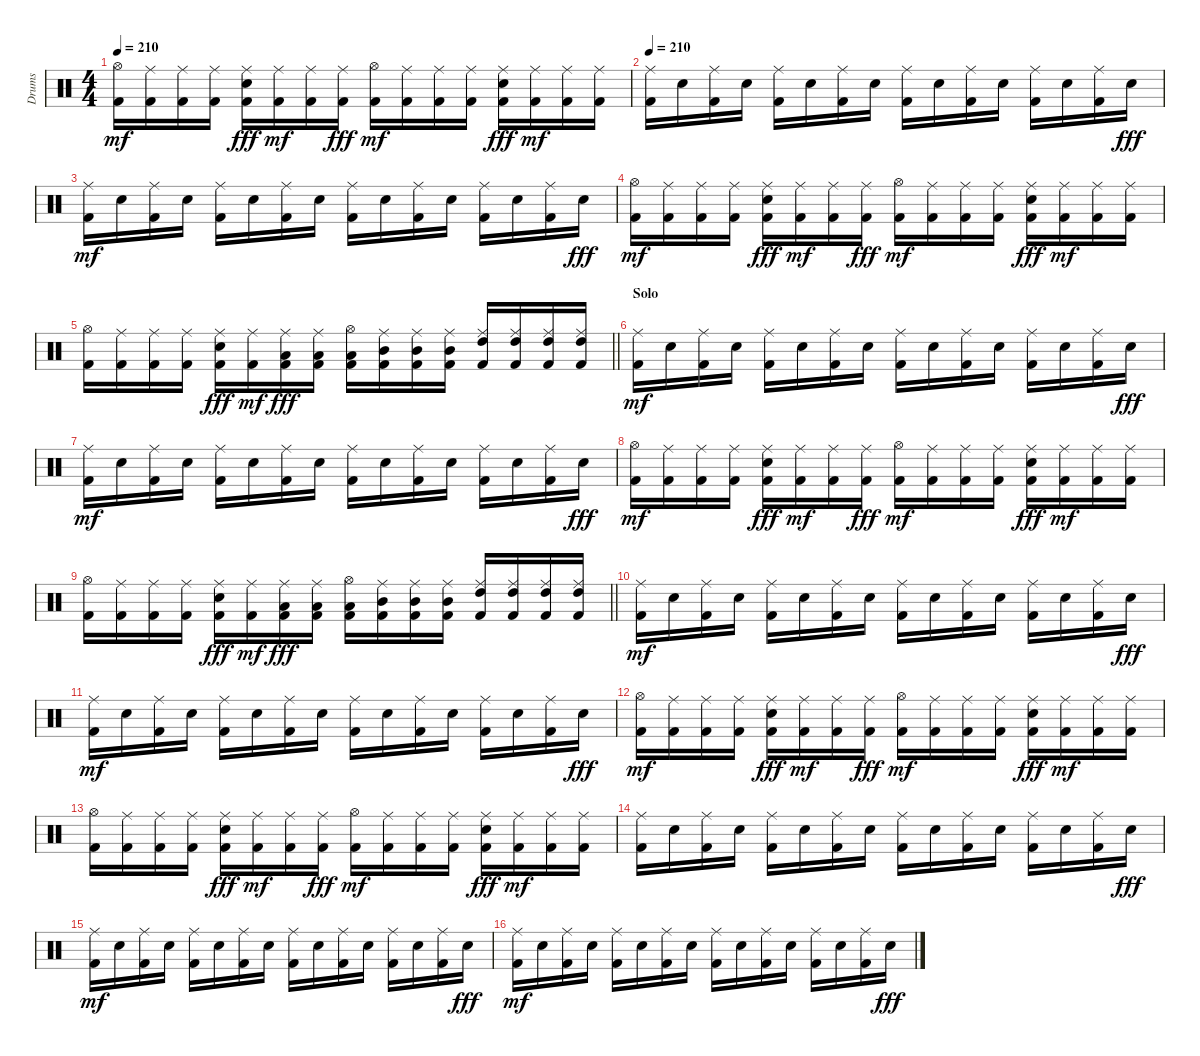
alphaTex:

\track ("Drums" "Drums") {instrument percussion}
\staff {score}
\articulation defaults
\ts (4 4)
\tempo 210
\clef neutral
\ks c
("Hi-Hat (open)" "Kick (hit) 2").16{dy mf} ("Ride (middle)" "Kick (hit) 2").16 ("Ride (middle)" "Kick (hit) 2").16 ("Ride (middle)" "Kick (hit) 2").16 ("Ride (middle)" "Snare (hit) 2" "Kick (hit) 2").16{dy fff} ("Ride (middle)" "Kick (hit) 2").16{dy mf} ("Ride (middle)" "Kick (hit) 2").16 ("Ride (middle)" "Kick (hit) 2").16{dy fff} ("Hi-Hat (open)" "Kick (hit) 2").16{dy mf} ("Ride (middle)" "Kick (hit) 2").16 ("Ride (middle)" "Kick (hit) 2").16 ("Ride (middle)" "Kick (hit) 2").16 ("Ride (middle)" "Snare (hit) 2" "Kick (hit) 2").16{dy fff} ("Ride (middle)" "Kick (hit) 2").16{dy mf} ("Ride (middle)" "Kick (hit) 2").16 ("Ride (middle)" "Kick (hit) 2").16 |
\tempo 210
("Ride (middle)" "Kick (hit) 2").16 "Snare (hit) 2".16 ("Ride (middle)" "Kick (hit) 2").16 "Snare (hit) 2".16 ("Ride (middle)" "Kick (hit) 2").16 "Snare (hit) 2".16 ("Ride (middle)" "Kick (hit) 2").16 "Snare (hit) 2".16 ("Ride (middle)" "Kick (hit) 2").16 "Snare (hit) 2".16 ("Ride (middle)" "Kick (hit) 2").16 "Snare (hit) 2".16 ("Ride (middle)" "Kick (hit) 2").16 "Snare (hit) 2".16 ("Ride (middle)" "Kick (hit) 2").16 "Snare (hit) 2".16{dy fff} |
("Ride (middle)" "Kick (hit) 2").16{dy mf} "Snare (hit) 2".16 ("Ride (middle)" "Kick (hit) 2").16 "Snare (hit) 2".16 ("Ride (middle)" "Kick (hit) 2").16 "Snare (hit) 2".16 ("Ride (middle)" "Kick (hit) 2").16 "Snare (hit) 2".16 ("Ride (middle)" "Kick (hit) 2").16 "Snare (hit) 2".16 ("Ride (middle)" "Kick (hit) 2").16 "Snare (hit) 2".16 ("Ride (middle)" "Kick (hit) 2").16 "Snare (hit) 2".16 ("Ride (middle)" "Kick (hit) 2").16 "Snare (hit) 2".16{dy fff} |
("Hi-Hat (open)" "Kick (hit) 2").16{dy mf} ("Ride (middle)" "Kick (hit) 2").16 ("Ride (middle)" "Kick (hit) 2").16 ("Ride (middle)" "Kick (hit) 2").16 ("Ride (middle)" "Snare (hit) 2" "Kick (hit) 2").16{dy fff} ("Ride (middle)" "Kick (hit) 2").16{dy mf} ("Ride (middle)" "Kick (hit) 2").16 ("Ride (middle)" "Kick (hit) 2").16{dy fff} ("Hi-Hat (open)" "Kick (hit) 2").16{dy mf} ("Ride (middle)" "Kick (hit) 2").16 ("Ride (middle)" "Kick (hit) 2").16 ("Ride (middle)" "Kick (hit) 2").16 ("Ride (middle)" "Snare (hit) 2" "Kick (hit) 2").16{dy fff} ("Ride (middle)" "Kick (hit) 2").16{dy mf} ("Ride (middle)" "Kick (hit) 2").16 ("Ride (middle)" "Kick (hit) 2").16 |
\barLineRight lightlight
("Hi-Hat (open)" "Kick (hit) 2").16 ("Ride (middle)" "Kick (hit) 2").16 ("Ride (middle)" "Kick (hit) 2").16 ("Ride (middle)" "Kick (hit) 2").16 ("Ride (middle)" "Snare (hit) 2" "Kick (hit) 2").16{dy fff} ("Ride (middle)" "Kick (hit) 2").16{dy mf} ("Ride (middle)" "Low Tom (hit)" "Kick (hit) 2").16{dy fff} ("Ride (middle)" "Low Tom (hit)" "Kick (hit) 2").16 ("Hi-Hat (open)" "Low Tom (hit)" "Kick (hit) 2").16 ("Ride (middle)" "Mid Tom (hit)" "Kick (hit) 2").16 ("Ride (middle)" "Mid Tom (hit)" "Kick (hit) 2").16 ("Ride (middle)" "Mid Tom (hit)" "Kick (hit) 2").16 ("Ride (middle)" "High Tom (hit)" "Kick (hit) 2").16 ("Ride (middle)" "High Tom (hit)" "Kick (hit) 2").16 ("Ride (middle)" "High Tom (hit)" "Kick (hit) 2").16 ("Ride (middle)" "High Tom (hit)" "Kick (hit) 2").16 |
\section ("" "Solo")
("Ride (middle)" "Kick (hit) 2").16{dy mf} "Snare (hit) 2".16 ("Ride (middle)" "Kick (hit) 2").16 "Snare (hit) 2".16 ("Ride (middle)" "Kick (hit) 2").16 "Snare (hit) 2".16 ("Ride (middle)" "Kick (hit) 2").16 "Snare (hit) 2".16 ("Ride (middle)" "Kick (hit) 2").16 "Snare (hit) 2".16 ("Ride (middle)" "Kick (hit) 2").16 "Snare (hit) 2".16 ("Ride (middle)" "Kick (hit) 2").16 "Snare (hit) 2".16 ("Ride (middle)" "Kick (hit) 2").16 "Snare (hit) 2".16{dy fff} |
("Ride (middle)" "Kick (hit) 2").16{dy mf} "Snare (hit) 2".16 ("Ride (middle)" "Kick (hit) 2").16 "Snare (hit) 2".16 ("Ride (middle)" "Kick (hit) 2").16 "Snare (hit) 2".16 ("Ride (middle)" "Kick (hit) 2").16 "Snare (hit) 2".16 ("Ride (middle)" "Kick (hit) 2").16 "Snare (hit) 2".16 ("Ride (middle)" "Kick (hit) 2").16 "Snare (hit) 2".16 ("Ride (middle)" "Kick (hit) 2").16 "Snare (hit) 2".16 ("Ride (middle)" "Kick (hit) 2").16 "Snare (hit) 2".16{dy fff} |
("Hi-Hat (open)" "Kick (hit) 2").16{dy mf} ("Ride (middle)" "Kick (hit) 2").16 ("Ride (middle)" "Kick (hit) 2").16 ("Ride (middle)" "Kick (hit) 2").16 ("Ride (middle)" "Snare (hit) 2" "Kick (hit) 2").16{dy fff} ("Ride (middle)" "Kick (hit) 2").16{dy mf} ("Ride (middle)" "Kick (hit) 2").16 ("Ride (middle)" "Kick (hit) 2").16{dy fff} ("Hi-Hat (open)" "Kick (hit) 2").16{dy mf} ("Ride (middle)" "Kick (hit) 2").16 ("Ride (middle)" "Kick (hit) 2").16 ("Ride (middle)" "Kick (hit) 2").16 ("Ride (middle)" "Snare (hit) 2" "Kick (hit) 2").16{dy fff} ("Ride (middle)" "Kick (hit) 2").16{dy mf} ("Ride (middle)" "Kick (hit) 2").16 ("Ride (middle)" "Kick (hit) 2").16 |
\barLineRight lightlight
("Hi-Hat (open)" "Kick (hit) 2").16 ("Ride (middle)" "Kick (hit) 2").16 ("Ride (middle)" "Kick (hit) 2").16 ("Ride (middle)" "Kick (hit) 2").16 ("Ride (middle)" "Snare (hit) 2" "Kick (hit) 2").16{dy fff} ("Ride (middle)" "Kick (hit) 2").16{dy mf} ("Ride (middle)" "Low Tom (hit)" "Kick (hit) 2").16{dy fff} ("Ride (middle)" "Low Tom (hit)" "Kick (hit) 2").16 ("Hi-Hat (open)" "Low Tom (hit)" "Kick (hit) 2").16 ("Ride (middle)" "Mid Tom (hit)" "Kick (hit) 2").16 ("Ride (middle)" "Mid Tom (hit)" "Kick (hit) 2").16 ("Ride (middle)" "Mid Tom (hit)" "Kick (hit) 2").16 ("Ride (middle)" "High Tom (hit)" "Kick (hit) 2").16 ("Ride (middle)" "High Tom (hit)" "Kick (hit) 2").16 ("Ride (middle)" "High Tom (hit)" "Kick (hit) 2").16 ("Ride (middle)" "High Tom (hit)" "Kick (hit) 2").16 |
("Ride (middle)" "Kick (hit) 2").16{dy mf} "Snare (hit) 2".16 ("Ride (middle)" "Kick (hit) 2").16 "Snare (hit) 2".16 ("Ride (middle)" "Kick (hit) 2").16 "Snare (hit) 2".16 ("Ride (middle)" "Kick (hit) 2").16 "Snare (hit) 2".16 ("Ride (middle)" "Kick (hit) 2").16 "Snare (hit) 2".16 ("Ride (middle)" "Kick (hit) 2").16 "Snare (hit) 2".16 ("Ride (middle)" "Kick (hit) 2").16 "Snare (hit) 2".16 ("Ride (middle)" "Kick (hit) 2").16 "Snare (hit) 2".16{dy fff} |
("Ride (middle)" "Kick (hit) 2").16{dy mf} "Snare (hit) 2".16 ("Ride (middle)" "Kick (hit) 2").16 "Snare (hit) 2".16 ("Ride (middle)" "Kick (hit) 2").16 "Snare (hit) 2".16 ("Ride (middle)" "Kick (hit) 2").16 "Snare (hit) 2".16 ("Ride (middle)" "Kick (hit) 2").16 "Snare (hit) 2".16 ("Ride (middle)" "Kick (hit) 2").16 "Snare (hit) 2".16 ("Ride (middle)" "Kick (hit) 2").16 "Snare (hit) 2".16 ("Ride (middle)" "Kick (hit) 2").16 "Snare (hit) 2".16{dy fff} |
("Hi-Hat (open)" "Kick (hit) 2").16{dy mf} ("Ride (middle)" "Kick (hit) 2").16 ("Ride (middle)" "Kick (hit) 2").16 ("Ride (middle)" "Kick (hit) 2").16 ("Ride (middle)" "Snare (hit) 2" "Kick (hit) 2").16{dy fff} ("Ride (middle)" "Kick (hit) 2").16{dy mf} ("Ride (middle)" "Kick (hit) 2").16 ("Ride (middle)" "Kick (hit) 2").16{dy fff} ("Hi-Hat (open)" "Kick (hit) 2").16{dy mf} ("Ride (middle)" "Kick (hit) 2").16 ("Ride (middle)" "Kick (hit) 2").16 ("Ride (middle)" "Kick (hit) 2").16 ("Ride (middle)" "Snare (hit) 2" "Kick (hit) 2").16{dy fff} ("Ride (middle)" "Kick (hit) 2").16{dy mf} ("Ride (middle)" "Kick (hit) 2").16 ("Ride (middle)" "Kick (hit) 2").16 |
("Hi-Hat (open)" "Kick (hit) 2").16 ("Ride (middle)" "Kick (hit) 2").16 ("Ride (middle)" "Kick (hit) 2").16 ("Ride (middle)" "Kick (hit) 2").16 ("Ride (middle)" "Snare (hit) 2" "Kick (hit) 2").16{dy fff} ("Ride (middle)" "Kick (hit) 2").16{dy mf} ("Ride (middle)" "Kick (hit) 2").16 ("Ride (middle)" "Kick (hit) 2").16{dy fff} ("Hi-Hat (open)" "Kick (hit) 2").16{dy mf} ("Ride (middle)" "Kick (hit) 2").16 ("Ride (middle)" "Kick (hit) 2").16 ("Ride (middle)" "Kick (hit) 2").16 ("Ride (middle)" "Snare (hit) 2" "Kick (hit) 2").16{dy fff} ("Ride (middle)" "Kick (hit) 2").16{dy mf} ("Ride (middle)" "Kick (hit) 2").16 ("Ride (middle)" "Kick (hit) 2").16 |
("Ride (middle)" "Kick (hit) 2").16 "Snare (hit) 2".16 ("Ride (middle)" "Kick (hit) 2").16 "Snare (hit) 2".16 ("Ride (middle)" "Kick (hit) 2").16 "Snare (hit) 2".16 ("Ride (middle)" "Kick (hit) 2").16 "Snare (hit) 2".16 ("Ride (middle)" "Kick (hit) 2").16 "Snare (hit) 2".16 ("Ride (middle)" "Kick (hit) 2").16 "Snare (hit) 2".16 ("Ride (middle)" "Kick (hit) 2").16 "Snare (hit) 2".16 ("Ride (middle)" "Kick (hit) 2").16 "Snare (hit) 2".16{dy fff} |
("Ride (middle)" "Kick (hit) 2").16{dy mf} "Snare (hit) 2".16 ("Ride (middle)" "Kick (hit) 2").16 "Snare (hit) 2".16 ("Ride (middle)" "Kick (hit) 2").16 "Snare (hit) 2".16 ("Ride (middle)" "Kick (hit) 2").16 "Snare (hit) 2".16 ("Ride (middle)" "Kick (hit) 2").16 "Snare (hit) 2".16 ("Ride (middle)" "Kick (hit) 2").16 "Snare (hit) 2".16 ("Ride (middle)" "Kick (hit) 2").16 "Snare (hit) 2".16 ("Ride (middle)" "Kick (hit) 2").16 "Snare (hit) 2".16{dy fff} |
("Ride (middle)" "Kick (hit) 2").16{dy mf} "Snare (hit) 2".16 ("Ride (middle)" "Kick (hit) 2").16 "Snare (hit) 2".16 ("Ride (middle)" "Kick (hit) 2").16 "Snare (hit) 2".16 ("Ride (middle)" "Kick (hit) 2").16 "Snare (hit) 2".16 ("Ride (middle)" "Kick (hit) 2").16 "Snare (hit) 2".16 ("Ride (middle)" "Kick (hit) 2").16 "Snare (hit) 2".16 ("Ride (middle)" "Kick (hit) 2").16 "Snare (hit) 2".16 ("Ride (middle)" "Kick (hit) 2").16 "Snare (hit) 2".16{dy fff}
